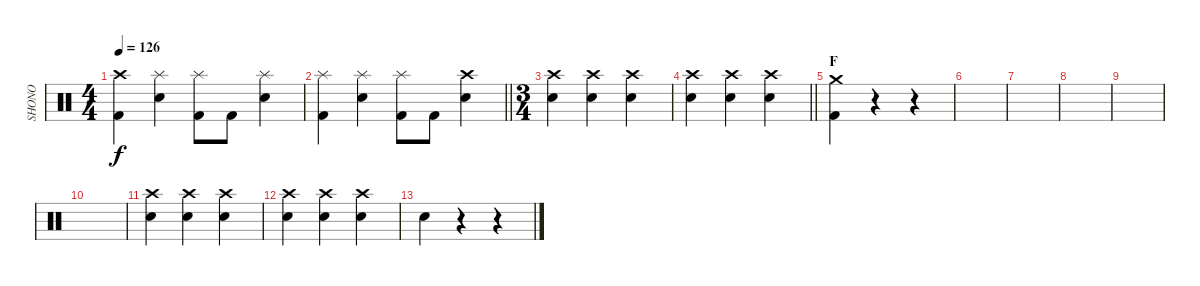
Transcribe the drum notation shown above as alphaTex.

\track ("SHONO" "SHONO") {instrument percussion}
\staff {score}
\articulation defaults
\ts (4 4)
\tempo 126
\clef neutral
\ks c
("Crash high (hit)" "Kick (hit) 2").4{dy f} ("Splash (hit)" "Snare (hit) 2").4 ("Splash (hit)" "Kick (hit) 2").8 "Kick (hit) 2".8 ("Splash (hit)" "Snare (hit) 2").4 |
\barLineRight lightlight
("Splash (hit)" "Kick (hit) 2").4 ("Splash (hit)" "Snare (hit) 2").4 ("Splash (hit)" "Kick (hit) 2").8 "Kick (hit) 2".8 ("Crash high (hit)" "Snare (hit) 2").4 |
\ts (3 4)
("Crash high (hit)" "Snare (hit) 2").4 ("Crash high (hit)" "Snare (hit) 2").4 ("Crash high (hit)" "Snare (hit) 2").4 |
\barLineRight lightlight
("Crash high (hit)" "Snare (hit) 2").4 ("Crash high (hit)" "Snare (hit) 2").4 ("Crash high (hit)" "Snare (hit) 2").4 |
\section ("" "F")
("Crash medium (hit)" "Kick (hit) 2").4 r.4 r.4 |
|
|
|
|
|
("Crash high (hit)" "Snare (hit) 2").4 ("Crash high (hit)" "Snare (hit) 2").4 ("Crash high (hit)" "Snare (hit) 2").4 |
("Crash high (hit)" "Snare (hit) 2").4 ("Crash high (hit)" "Snare (hit) 2").4 ("Crash high (hit)" "Snare (hit) 2").4 |
"Snare (hit) 2".4 r.4 r.4
